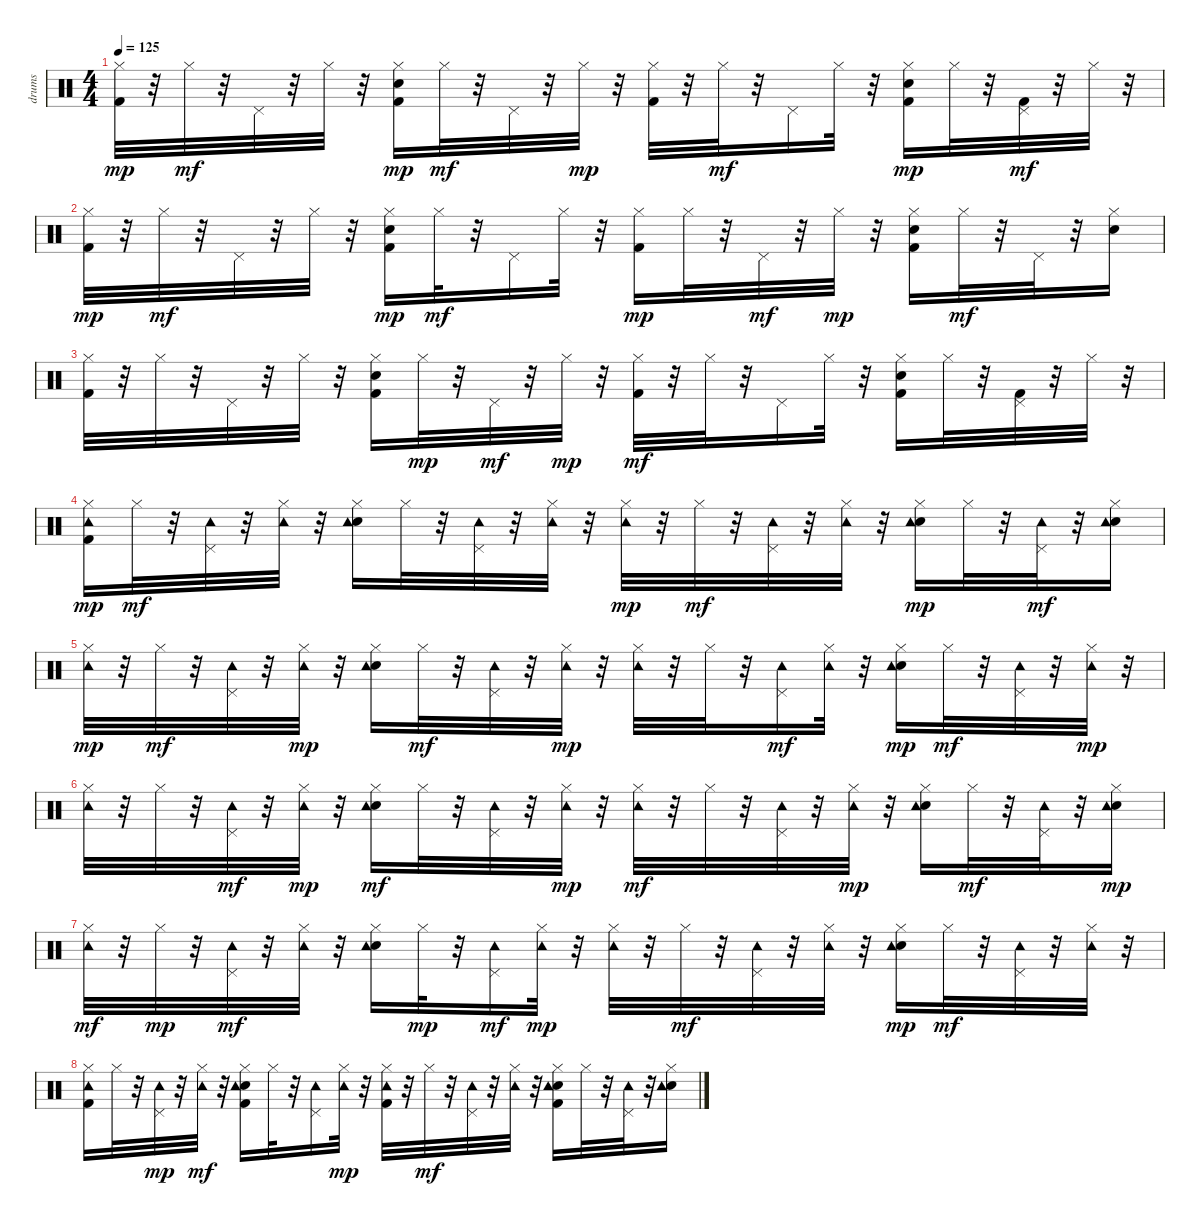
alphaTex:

\track ("drums   " "drums   ") {instrument percussion}
\staff {score}
\articulation defaults
\ts (4 4)
\tempo 125
\clef neutral
\ks c
("Kick (hit) 2" "Hi-Hat (closed)").32{dy mp} r.32 "Hi-Hat (closed)".32{dy mf} r.32 "Pedal Hi-Hat (hit)".32 r.32 "Hi-Hat (closed)".32 r.32 ("Kick (hit) 2" "Snare (hit) 2" "Hi-Hat (closed)").16{dy mp} "Hi-Hat (closed)".32{dy mf} r.32 "Pedal Hi-Hat (hit)".32 r.32 "Hi-Hat (closed)".32{dy mp} r.32 ("Kick (hit) 2" "Hi-Hat (closed)").32 r.32 "Hi-Hat (closed)".32{dy mf} r.32 "Pedal Hi-Hat (hit)".16 "Hi-Hat (closed)".32 r.32 ("Kick (hit) 2" "Snare (hit) 2" "Hi-Hat (closed)").16{dy mp} "Hi-Hat (closed)".32 r.32 ("Kick (hit) 2" "Pedal Hi-Hat (hit)").32{dy mf} r.32 "Hi-Hat (closed)".32 r.32 |
("Kick (hit) 2" "Hi-Hat (closed)").32{dy mp} r.32 "Hi-Hat (closed)".32{dy mf} r.32 "Pedal Hi-Hat (hit)".32 r.32 "Hi-Hat (closed)".32 r.32 ("Kick (hit) 2" "Snare (hit) 2" "Hi-Hat (closed)").16{dy mp} "Hi-Hat (closed)".32{dy mf} r.32 "Pedal Hi-Hat (hit)".16 "Hi-Hat (closed)".32 r.32 ("Kick (hit) 2" "Hi-Hat (closed)").16{dy mp} "Hi-Hat (closed)".32 r.32 "Pedal Hi-Hat (hit)".32{dy mf} r.32 "Hi-Hat (closed)".32{dy mp} r.32 ("Kick (hit) 2" "Snare (hit) 2" "Hi-Hat (closed)").16 "Hi-Hat (closed)".32{dy mf} r.32 "Pedal Hi-Hat (hit)".32 r.32 ("Snare (hit) 2" "Hi-Hat (closed)").16 |
("Kick (hit) 2" "Hi-Hat (closed)").32 r.32 "Hi-Hat (closed)".32 r.32 "Pedal Hi-Hat (hit)".32 r.32 "Hi-Hat (closed)".32 r.32 ("Kick (hit) 2" "Snare (hit) 2" "Hi-Hat (closed)").16 "Hi-Hat (closed)".32{dy mp} r.32 "Pedal Hi-Hat (hit)".32{dy mf} r.32 "Hi-Hat (closed)".32{dy mp} r.32 ("Kick (hit) 2" "Hi-Hat (closed)").32{dy mf} r.32 "Hi-Hat (closed)".32 r.32 "Pedal Hi-Hat (hit)".16 "Hi-Hat (closed)".32 r.32 ("Kick (hit) 2" "Snare (hit) 2" "Hi-Hat (closed)").16 "Hi-Hat (closed)".32 r.32 ("Kick (hit) 2" "Pedal Hi-Hat (hit)").32 r.32 "Hi-Hat (closed)".32 r.32 |
("Kick (hit) 2" "Hi-Hat (closed)" "Tambourine (hit)").16{dy mp} "Hi-Hat (closed)".32{dy mf} r.32 ("Pedal Hi-Hat (hit)" "Tambourine (hit)").32 r.32 ("Hi-Hat (closed)" "Tambourine (hit)").32 r.32 ("Snare (hit) 2" "Hi-Hat (closed)" "Tambourine (hit)").16 "Hi-Hat (closed)".32 r.32 ("Pedal Hi-Hat (hit)" "Tambourine (hit)").32 r.32 ("Hi-Hat (closed)" "Tambourine (hit)").32 r.32 ("Hi-Hat (closed)" "Tambourine (hit)").32{dy mp} r.32 "Hi-Hat (closed)".32{dy mf} r.32 ("Pedal Hi-Hat (hit)" "Tambourine (hit)").32 r.32 ("Hi-Hat (closed)" "Tambourine (hit)").32 r.32 ("Snare (hit) 2" "Hi-Hat (closed)" "Tambourine (hit)").16{dy mp} "Hi-Hat (closed)".32 r.32 ("Pedal Hi-Hat (hit)" "Tambourine (hit)").32{dy mf} r.32 ("Snare (hit) 2" "Hi-Hat (closed)" "Tambourine (hit)").16 |
("Hi-Hat (closed)" "Tambourine (hit)").32{dy mp} r.32 "Hi-Hat (closed)".32{dy mf} r.32 ("Pedal Hi-Hat (hit)" "Tambourine (hit)").32 r.32 ("Hi-Hat (closed)" "Tambourine (hit)").32{dy mp} r.32 ("Snare (hit) 2" "Hi-Hat (closed)" "Tambourine (hit)").16 "Hi-Hat (closed)".32{dy mf} r.32 ("Pedal Hi-Hat (hit)" "Tambourine (hit)").32 r.32 ("Hi-Hat (closed)" "Tambourine (hit)").32{dy mp} r.32 ("Hi-Hat (closed)" "Tambourine (hit)").32 r.32 "Hi-Hat (closed)".32 r.32 ("Pedal Hi-Hat (hit)" "Tambourine (hit)").16{dy mf} ("Hi-Hat (closed)" "Tambourine (hit)").32 r.32 ("Snare (hit) 2" "Hi-Hat (closed)" "Tambourine (hit)").16{dy mp} "Hi-Hat (closed)".32{dy mf} r.32 ("Pedal Hi-Hat (hit)" "Tambourine (hit)").32 r.32 ("Hi-Hat (closed)" "Tambourine (hit)").32{dy mp} r.32 |
("Hi-Hat (closed)" "Tambourine (hit)").32 r.32 "Hi-Hat (closed)".32 r.32 ("Pedal Hi-Hat (hit)" "Tambourine (hit)").32{dy mf} r.32 ("Hi-Hat (closed)" "Tambourine (hit)").32{dy mp} r.32 ("Snare (hit) 2" "Hi-Hat (closed)" "Tambourine (hit)").16{dy mf} "Hi-Hat (closed)".32 r.32 ("Pedal Hi-Hat (hit)" "Tambourine (hit)").32 r.32 ("Hi-Hat (closed)" "Tambourine (hit)").32{dy mp} r.32 ("Hi-Hat (closed)" "Tambourine (hit)").32{dy mf} r.32 "Hi-Hat (closed)".32 r.32 ("Pedal Hi-Hat (hit)" "Tambourine (hit)").32 r.32 ("Hi-Hat (closed)" "Tambourine (hit)").32{dy mp} r.32 ("Snare (hit) 2" "Hi-Hat (closed)" "Tambourine (hit)").16 "Hi-Hat (closed)".32{dy mf} r.32 ("Pedal Hi-Hat (hit)" "Tambourine (hit)").32 r.32 ("Snare (hit) 2" "Hi-Hat (closed)" "Tambourine (hit)").16{dy mp} |
("Hi-Hat (closed)" "Tambourine (hit)").32{dy mf} r.32 "Hi-Hat (closed)".32{dy mp} r.32 ("Pedal Hi-Hat (hit)" "Tambourine (hit)").32{dy mf} r.32 ("Hi-Hat (closed)" "Tambourine (hit)").32 r.32 ("Snare (hit) 2" "Hi-Hat (closed)" "Tambourine (hit)").16 "Hi-Hat (closed)".32{dy mp} r.32 ("Pedal Hi-Hat (hit)" "Tambourine (hit)").16{dy mf} ("Hi-Hat (closed)" "Tambourine (hit)").32{dy mp} r.32 ("Hi-Hat (closed)" "Tambourine (hit)").32 r.32 "Hi-Hat (closed)".32{dy mf} r.32 ("Pedal Hi-Hat (hit)" "Tambourine (hit)").32 r.32 ("Hi-Hat (closed)" "Tambourine (hit)").32 r.32 ("Snare (hit) 2" "Hi-Hat (closed)" "Tambourine (hit)").16{dy mp} "Hi-Hat (closed)".32{dy mf} r.32 ("Pedal Hi-Hat (hit)" "Tambourine (hit)").32 r.32 ("Hi-Hat (closed)" "Tambourine (hit)").32 r.32 |
("Kick (hit) 2" "Hi-Hat (closed)" "Tambourine (hit)").16 "Hi-Hat (closed)".32 r.32 ("Pedal Hi-Hat (hit)" "Tambourine (hit)").32{dy mp} r.32 ("Hi-Hat (closed)" "Tambourine (hit)").32{dy mf} r.32 ("Kick (hit) 2" "Snare (hit) 2" "Hi-Hat (closed)" "Tambourine (hit)").16 "Hi-Hat (closed)".32 r.32 ("Pedal Hi-Hat (hit)" "Tambourine (hit)").16 ("Hi-Hat (closed)" "Tambourine (hit)").32{dy mp} r.32 ("Kick (hit) 2" "Hi-Hat (closed)" "Tambourine (hit)").32 r.32 "Hi-Hat (closed)".32{dy mf} r.32 ("Pedal Hi-Hat (hit)" "Tambourine (hit)").32 r.32 ("Hi-Hat (closed)" "Tambourine (hit)").32 r.32 ("Kick (hit) 2" "Snare (hit) 2" "Hi-Hat (closed)" "Tambourine (hit)").16 "Hi-Hat (closed)".32 r.32 ("Pedal Hi-Hat (hit)" "Tambourine (hit)").32 r.32 ("Snare (hit) 2" "Hi-Hat (closed)" "Tambourine (hit)").16
